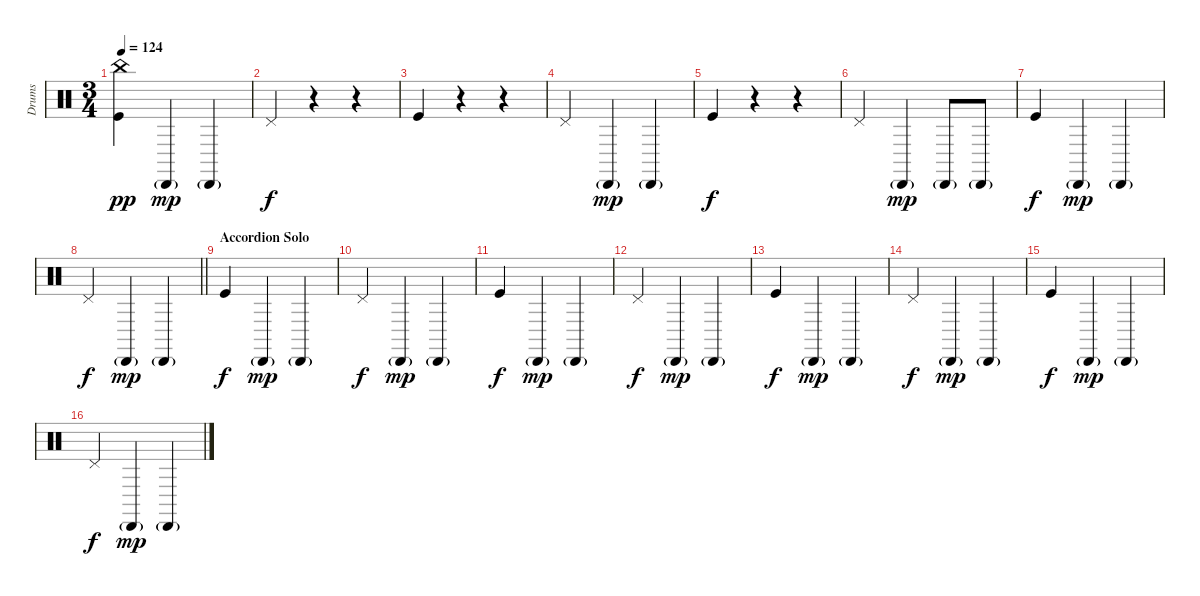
\track ("Drums" "Drums") {instrument percussion}
\staff {score}
\articulation defaults
\ts (3 4)
\tempo 124
\clef neutral
\ks c
("China (hit)" "Kick (hit)").4{dy pp} "Cabasa (hit)"{g}.4{dy mp} "Cabasa (hit)"{g}.4 |
"Pedal Hi-Hat (hit)".4{dy f} r.4 r.4 |
"Kick (hit)".4 r.4 r.4 |
"Pedal Hi-Hat (hit)".4 "Cabasa (hit)"{g}.4{dy mp} "Cabasa (hit)"{g}.4 |
"Kick (hit)".4{dy f} r.4 r.4 |
"Pedal Hi-Hat (hit)".4 "Cabasa (hit)"{g}.4{dy mp} "Cabasa (hit)"{g}.8 "Cabasa (hit)"{g}.8 |
"Kick (hit)".4{dy f} "Cabasa (hit)"{g}.4{dy mp} "Cabasa (hit)"{g}.4 |
\barLineRight lightlight "Pedal Hi-Hat (hit)".4{dy f} "Cabasa (hit)"{g}.4{dy mp} "Cabasa (hit)"{g}.4
|
\section ("" "Accordion Solo")
"Kick (hit)".4{dy f} "Cabasa (hit)"{g}.4{dy mp} "Cabasa (hit)"{g}.4 |
"Pedal Hi-Hat (hit)".4{dy f} "Cabasa (hit)"{g}.4{dy mp} "Cabasa (hit)"{g}.4 |
"Kick (hit)".4{dy f} "Cabasa (hit)"{g}.4{dy mp} "Cabasa (hit)"{g}.4 |
"Pedal Hi-Hat (hit)".4{dy f} "Cabasa (hit)"{g}.4{dy mp} "Cabasa (hit)"{g}.4 |
"Kick (hit)".4{dy f} "Cabasa (hit)"{g}.4{dy mp} "Cabasa (hit)"{g}.4 |
"Pedal Hi-Hat (hit)".4{dy f} "Cabasa (hit)"{g}.4{dy mp} "Cabasa (hit)"{g}.4 |
"Kick (hit)".4{dy f} "Cabasa (hit)"{g}.4{dy mp} "Cabasa (hit)"{g}.4 |
"Pedal Hi-Hat (hit)".4{dy f} "Cabasa (hit)"{g}.4{dy mp} "Cabasa (hit)"{g}.4
